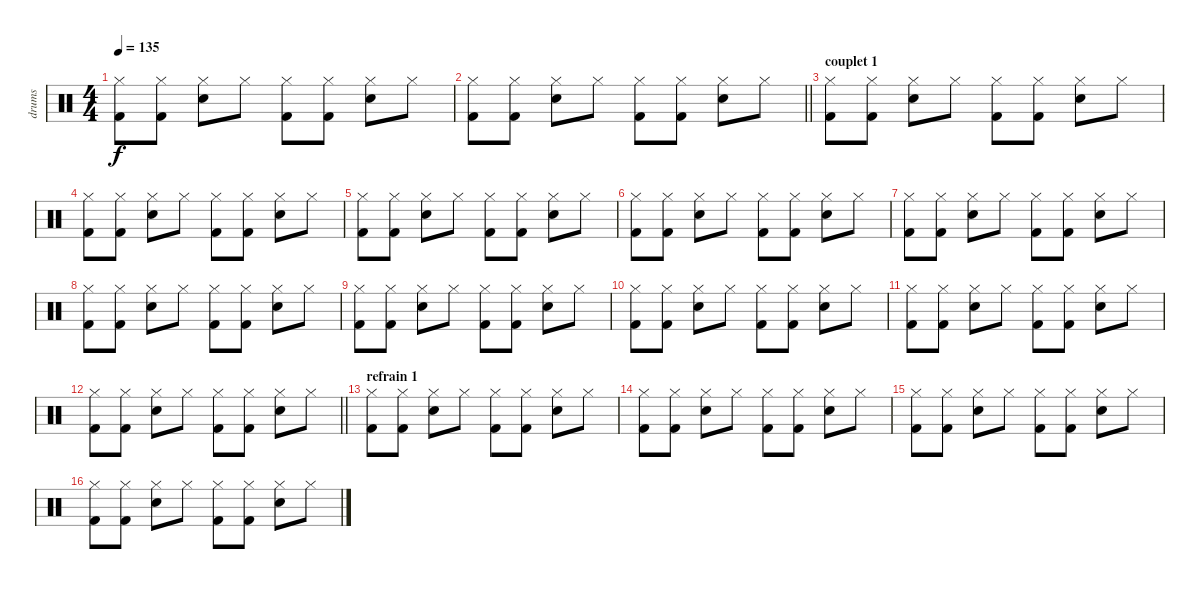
\track ("drums" "drums") {instrument percussion}
\staff {score}
\articulation defaults
\ts (4 4)
\tempo 135
\clef neutral
\ks c
("Hi-Hat (closed)" "Kick (hit) 2").8{dy f} ("Hi-Hat (closed)" "Kick (hit) 2").8 ("Hi-Hat (closed)" "Electric Snare (hit)").8 "Hi-Hat (closed)".8 ("Hi-Hat (closed)" "Kick (hit) 2").8 ("Hi-Hat (closed)" "Kick (hit) 2").8 ("Hi-Hat (closed)" "Electric Snare (hit)").8 "Hi-Hat (closed)".8 |
\barLineRight lightlight
("Hi-Hat (closed)" "Kick (hit) 2").8 ("Hi-Hat (closed)" "Kick (hit) 2").8 ("Hi-Hat (closed)" "Electric Snare (hit)").8 "Hi-Hat (closed)".8 ("Hi-Hat (closed)" "Kick (hit) 2").8 ("Hi-Hat (closed)" "Kick (hit) 2").8 ("Hi-Hat (closed)" "Electric Snare (hit)").8 "Hi-Hat (closed)".8 |
\section ("" "couplet 1")
("Hi-Hat (closed)" "Kick (hit) 2").8 ("Hi-Hat (closed)" "Kick (hit) 2").8 ("Hi-Hat (closed)" "Electric Snare (hit)").8 "Hi-Hat (closed)".8 ("Hi-Hat (closed)" "Kick (hit) 2").8 ("Hi-Hat (closed)" "Kick (hit) 2").8 ("Hi-Hat (closed)" "Electric Snare (hit)").8 "Hi-Hat (closed)".8 |
("Hi-Hat (closed)" "Kick (hit) 2").8 ("Hi-Hat (closed)" "Kick (hit) 2").8 ("Hi-Hat (closed)" "Electric Snare (hit)").8 "Hi-Hat (closed)".8 ("Hi-Hat (closed)" "Kick (hit) 2").8 ("Hi-Hat (closed)" "Kick (hit) 2").8 ("Hi-Hat (closed)" "Electric Snare (hit)").8 "Hi-Hat (closed)".8 |
("Hi-Hat (closed)" "Kick (hit) 2").8 ("Hi-Hat (closed)" "Kick (hit) 2").8 ("Hi-Hat (closed)" "Electric Snare (hit)").8 "Hi-Hat (closed)".8 ("Hi-Hat (closed)" "Kick (hit) 2").8 ("Hi-Hat (closed)" "Kick (hit) 2").8 ("Hi-Hat (closed)" "Electric Snare (hit)").8 "Hi-Hat (closed)".8 |
("Hi-Hat (closed)" "Kick (hit) 2").8 ("Hi-Hat (closed)" "Kick (hit) 2").8 ("Hi-Hat (closed)" "Electric Snare (hit)").8 "Hi-Hat (closed)".8 ("Hi-Hat (closed)" "Kick (hit) 2").8 ("Hi-Hat (closed)" "Kick (hit) 2").8 ("Hi-Hat (closed)" "Electric Snare (hit)").8 "Hi-Hat (closed)".8 |
("Hi-Hat (closed)" "Kick (hit) 2").8 ("Hi-Hat (closed)" "Kick (hit) 2").8 ("Hi-Hat (closed)" "Electric Snare (hit)").8 "Hi-Hat (closed)".8 ("Hi-Hat (closed)" "Kick (hit) 2").8 ("Hi-Hat (closed)" "Kick (hit) 2").8 ("Hi-Hat (closed)" "Electric Snare (hit)").8 "Hi-Hat (closed)".8 |
("Hi-Hat (closed)" "Kick (hit) 2").8 ("Hi-Hat (closed)" "Kick (hit) 2").8 ("Hi-Hat (closed)" "Electric Snare (hit)").8 "Hi-Hat (closed)".8 ("Hi-Hat (closed)" "Kick (hit) 2").8 ("Hi-Hat (closed)" "Kick (hit) 2").8 ("Hi-Hat (closed)" "Electric Snare (hit)").8 "Hi-Hat (closed)".8 |
("Hi-Hat (closed)" "Kick (hit) 2").8 ("Hi-Hat (closed)" "Kick (hit) 2").8 ("Hi-Hat (closed)" "Electric Snare (hit)").8 "Hi-Hat (closed)".8 ("Hi-Hat (closed)" "Kick (hit) 2").8 ("Hi-Hat (closed)" "Kick (hit) 2").8 ("Hi-Hat (closed)" "Electric Snare (hit)").8 "Hi-Hat (closed)".8 |
("Hi-Hat (closed)" "Kick (hit) 2").8 ("Hi-Hat (closed)" "Kick (hit) 2").8 ("Hi-Hat (closed)" "Electric Snare (hit)").8 "Hi-Hat (closed)".8 ("Hi-Hat (closed)" "Kick (hit) 2").8 ("Hi-Hat (closed)" "Kick (hit) 2").8 ("Hi-Hat (closed)" "Electric Snare (hit)").8 "Hi-Hat (closed)".8 |
("Hi-Hat (closed)" "Kick (hit) 2").8 ("Hi-Hat (closed)" "Kick (hit) 2").8 ("Hi-Hat (closed)" "Electric Snare (hit)").8 "Hi-Hat (closed)".8 ("Hi-Hat (closed)" "Kick (hit) 2").8 ("Hi-Hat (closed)" "Kick (hit) 2").8 ("Hi-Hat (closed)" "Electric Snare (hit)").8 "Hi-Hat (closed)".8 |
\barLineRight lightlight
("Hi-Hat (closed)" "Kick (hit) 2").8 ("Hi-Hat (closed)" "Kick (hit) 2").8 ("Hi-Hat (closed)" "Electric Snare (hit)").8 "Hi-Hat (closed)".8 ("Hi-Hat (closed)" "Kick (hit) 2").8 ("Hi-Hat (closed)" "Kick (hit) 2").8 ("Hi-Hat (closed)" "Electric Snare (hit)").8 "Hi-Hat (closed)".8 |
\section ("" "refrain 1")
("Hi-Hat (closed)" "Kick (hit) 2").8 ("Hi-Hat (closed)" "Kick (hit) 2").8 ("Hi-Hat (closed)" "Electric Snare (hit)").8 "Hi-Hat (closed)".8 ("Hi-Hat (closed)" "Kick (hit) 2").8 ("Hi-Hat (closed)" "Kick (hit) 2").8 ("Hi-Hat (closed)" "Electric Snare (hit)").8 "Hi-Hat (closed)".8 |
("Hi-Hat (closed)" "Kick (hit) 2").8 ("Hi-Hat (closed)" "Kick (hit) 2").8 ("Hi-Hat (closed)" "Electric Snare (hit)").8 "Hi-Hat (closed)".8 ("Hi-Hat (closed)" "Kick (hit) 2").8 ("Hi-Hat (closed)" "Kick (hit) 2").8 ("Hi-Hat (closed)" "Electric Snare (hit)").8 "Hi-Hat (closed)".8 |
("Hi-Hat (closed)" "Kick (hit) 2").8 ("Hi-Hat (closed)" "Kick (hit) 2").8 ("Hi-Hat (closed)" "Electric Snare (hit)").8 "Hi-Hat (closed)".8 ("Hi-Hat (closed)" "Kick (hit) 2").8 ("Hi-Hat (closed)" "Kick (hit) 2").8 ("Hi-Hat (closed)" "Electric Snare (hit)").8 "Hi-Hat (closed)".8 |
("Hi-Hat (closed)" "Kick (hit) 2").8 ("Hi-Hat (closed)" "Kick (hit) 2").8 ("Hi-Hat (closed)" "Electric Snare (hit)").8 "Hi-Hat (closed)".8 ("Hi-Hat (closed)" "Kick (hit) 2").8 ("Hi-Hat (closed)" "Kick (hit) 2").8 ("Hi-Hat (closed)" "Electric Snare (hit)").8 "Hi-Hat (closed)".8
